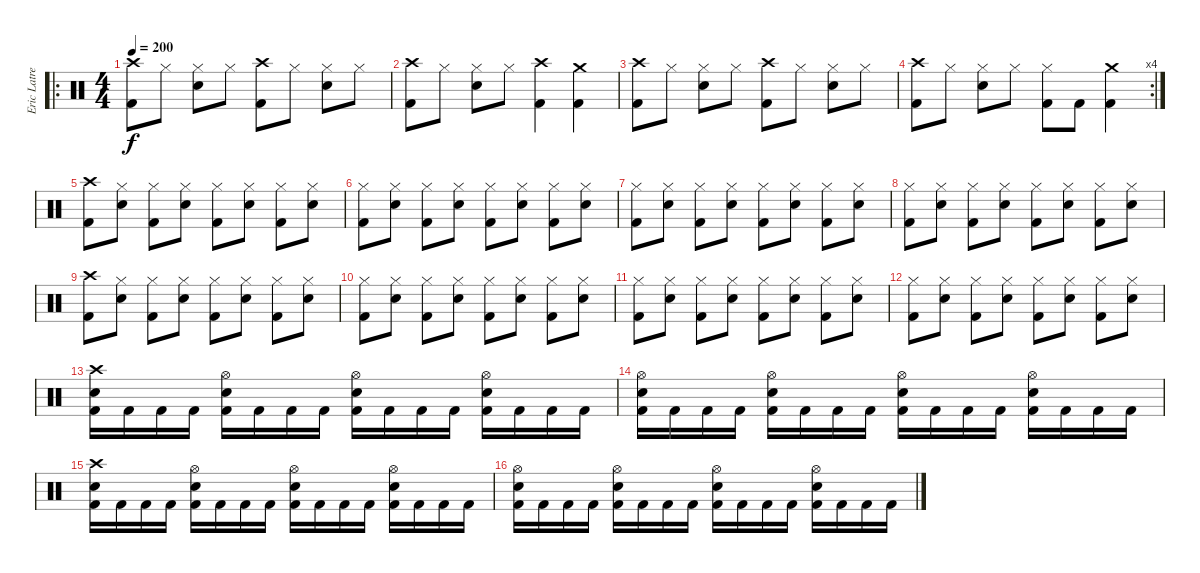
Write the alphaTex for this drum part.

\track ("Eric Latreille" "Eric Latre") {instrument percussion}
\staff {score}
\articulation defaults
\ro
\ts (4 4)
\tempo 200
\clef neutral
\ks c
("Crash high (hit)" "Kick (hit) 2").8{dy f} "Hi-Hat (closed)".8 ("Hi-Hat (closed)" "Snare (hit) 2").8 "Hi-Hat (closed)".8 ("Crash high (hit)" "Kick (hit) 2").8 "Hi-Hat (closed)".8 ("Hi-Hat (closed)" "Snare (hit) 2").8 "Hi-Hat (closed)".8 |
("Crash high (hit)" "Kick (hit) 2").8 "Hi-Hat (closed)".8 ("Hi-Hat (closed)" "Snare (hit) 2").8 "Hi-Hat (closed)".8 ("Crash high (hit)" "Kick (hit) 2").4 ("Crash medium (hit)" "Kick (hit) 2").4 |
("Crash high (hit)" "Kick (hit) 2").8 "Hi-Hat (closed)".8 ("Hi-Hat (closed)" "Snare (hit) 2").8 "Hi-Hat (closed)".8 ("Crash high (hit)" "Kick (hit) 2").8 "Hi-Hat (closed)".8 ("Hi-Hat (closed)" "Snare (hit) 2").8 "Hi-Hat (closed)".8 |
\rc 4
("Crash high (hit)" "Kick (hit) 2").8 "Hi-Hat (closed)".8 ("Hi-Hat (closed)" "Snare (hit) 2").8 "Hi-Hat (closed)".8 ("Hi-Hat (closed)" "Kick (hit) 2").8 "Kick (hit) 2".8 ("Crash medium (hit)" "Kick (hit) 2").4 |
("Crash high (hit)" "Kick (hit) 2").8 ("Hi-Hat (closed)" "Snare (hit) 2").8 ("Hi-Hat (closed)" "Kick (hit) 2").8 ("Hi-Hat (closed)" "Snare (hit) 2").8 ("Hi-Hat (closed)" "Kick (hit) 2").8 ("Hi-Hat (closed)" "Snare (hit) 2").8 ("Hi-Hat (closed)" "Kick (hit) 2").8 ("Hi-Hat (closed)" "Snare (hit) 2").8 |
("Hi-Hat (closed)" "Kick (hit) 2").8 ("Hi-Hat (closed)" "Snare (hit) 2").8 ("Hi-Hat (closed)" "Kick (hit) 2").8 ("Hi-Hat (closed)" "Snare (hit) 2").8 ("Hi-Hat (closed)" "Kick (hit) 2").8 ("Hi-Hat (closed)" "Snare (hit) 2").8 ("Hi-Hat (closed)" "Kick (hit) 2").8 ("Hi-Hat (closed)" "Snare (hit) 2").8 |
("Hi-Hat (closed)" "Kick (hit) 2").8 ("Hi-Hat (closed)" "Snare (hit) 2").8 ("Hi-Hat (closed)" "Kick (hit) 2").8 ("Hi-Hat (closed)" "Snare (hit) 2").8 ("Hi-Hat (closed)" "Kick (hit) 2").8 ("Hi-Hat (closed)" "Snare (hit) 2").8 ("Hi-Hat (closed)" "Kick (hit) 2").8 ("Hi-Hat (closed)" "Snare (hit) 2").8 |
("Hi-Hat (closed)" "Kick (hit) 2").8 ("Hi-Hat (closed)" "Snare (hit) 2").8 ("Hi-Hat (closed)" "Kick (hit) 2").8 ("Hi-Hat (closed)" "Snare (hit) 2").8 ("Hi-Hat (closed)" "Kick (hit) 2").8 ("Hi-Hat (closed)" "Snare (hit) 2").8 ("Hi-Hat (closed)" "Kick (hit) 2").8 ("Hi-Hat (closed)" "Snare (hit) 2").8 |
("Crash high (hit)" "Kick (hit) 2").8 ("Hi-Hat (closed)" "Snare (hit) 2").8 ("Hi-Hat (closed)" "Kick (hit) 2").8 ("Hi-Hat (closed)" "Snare (hit) 2").8 ("Hi-Hat (closed)" "Kick (hit) 2").8 ("Hi-Hat (closed)" "Snare (hit) 2").8 ("Hi-Hat (closed)" "Kick (hit) 2").8 ("Hi-Hat (closed)" "Snare (hit) 2").8 |
("Hi-Hat (closed)" "Kick (hit) 2").8 ("Hi-Hat (closed)" "Snare (hit) 2").8 ("Hi-Hat (closed)" "Kick (hit) 2").8 ("Hi-Hat (closed)" "Snare (hit) 2").8 ("Hi-Hat (closed)" "Kick (hit) 2").8 ("Hi-Hat (closed)" "Snare (hit) 2").8 ("Hi-Hat (closed)" "Kick (hit) 2").8 ("Hi-Hat (closed)" "Snare (hit) 2").8 |
("Hi-Hat (closed)" "Kick (hit) 2").8 ("Hi-Hat (closed)" "Snare (hit) 2").8 ("Hi-Hat (closed)" "Kick (hit) 2").8 ("Hi-Hat (closed)" "Snare (hit) 2").8 ("Hi-Hat (closed)" "Kick (hit) 2").8 ("Hi-Hat (closed)" "Snare (hit) 2").8 ("Hi-Hat (closed)" "Kick (hit) 2").8 ("Hi-Hat (closed)" "Snare (hit) 2").8 |
("Hi-Hat (closed)" "Kick (hit) 2").8 ("Hi-Hat (closed)" "Snare (hit) 2").8 ("Hi-Hat (closed)" "Kick (hit) 2").8 ("Hi-Hat (closed)" "Snare (hit) 2").8 ("Hi-Hat (closed)" "Kick (hit) 2").8 ("Hi-Hat (closed)" "Snare (hit) 2").8 ("Hi-Hat (closed)" "Kick (hit) 2").8 ("Hi-Hat (closed)" "Snare (hit) 2").8 |
("Crash high (hit)" "Snare (hit) 2" "Kick (hit) 2").16 "Kick (hit) 2".16 "Kick (hit) 2".16 "Kick (hit) 2".16 ("Hi-Hat (open)" "Snare (hit) 2" "Kick (hit) 2").16 "Kick (hit) 2".16 "Kick (hit) 2".16 "Kick (hit) 2".16 ("Hi-Hat (open)" "Snare (hit) 2" "Kick (hit) 2").16 "Kick (hit) 2".16 "Kick (hit) 2".16 "Kick (hit) 2".16 ("Hi-Hat (open)" "Snare (hit) 2" "Kick (hit) 2").16 "Kick (hit) 2".16 "Kick (hit) 2".16 "Kick (hit) 2".16 |
("Hi-Hat (open)" "Snare (hit) 2" "Kick (hit) 2").16 "Kick (hit) 2".16 "Kick (hit) 2".16 "Kick (hit) 2".16 ("Hi-Hat (open)" "Snare (hit) 2" "Kick (hit) 2").16 "Kick (hit) 2".16 "Kick (hit) 2".16 "Kick (hit) 2".16 ("Hi-Hat (open)" "Snare (hit) 2" "Kick (hit) 2").16 "Kick (hit) 2".16 "Kick (hit) 2".16 "Kick (hit) 2".16 ("Hi-Hat (open)" "Snare (hit) 2" "Kick (hit) 2").16 "Kick (hit) 2".16 "Kick (hit) 2".16 "Kick (hit) 2".16 |
("Crash high (hit)" "Snare (hit) 2" "Kick (hit) 2").16 "Kick (hit) 2".16 "Kick (hit) 2".16 "Kick (hit) 2".16 ("Hi-Hat (open)" "Snare (hit) 2" "Kick (hit) 2").16 "Kick (hit) 2".16 "Kick (hit) 2".16 "Kick (hit) 2".16 ("Hi-Hat (open)" "Snare (hit) 2" "Kick (hit) 2").16 "Kick (hit) 2".16 "Kick (hit) 2".16 "Kick (hit) 2".16 ("Hi-Hat (open)" "Snare (hit) 2" "Kick (hit) 2").16 "Kick (hit) 2".16 "Kick (hit) 2".16 "Kick (hit) 2".16 |
("Hi-Hat (open)" "Snare (hit) 2" "Kick (hit) 2").16 "Kick (hit) 2".16 "Kick (hit) 2".16 "Kick (hit) 2".16 ("Hi-Hat (open)" "Snare (hit) 2" "Kick (hit) 2").16 "Kick (hit) 2".16 "Kick (hit) 2".16 "Kick (hit) 2".16 ("Hi-Hat (open)" "Snare (hit) 2" "Kick (hit) 2").16 "Kick (hit) 2".16 "Kick (hit) 2".16 "Kick (hit) 2".16 ("Hi-Hat (open)" "Snare (hit) 2" "Kick (hit) 2").16 "Kick (hit) 2".16 "Kick (hit) 2".16 "Kick (hit) 2".16
